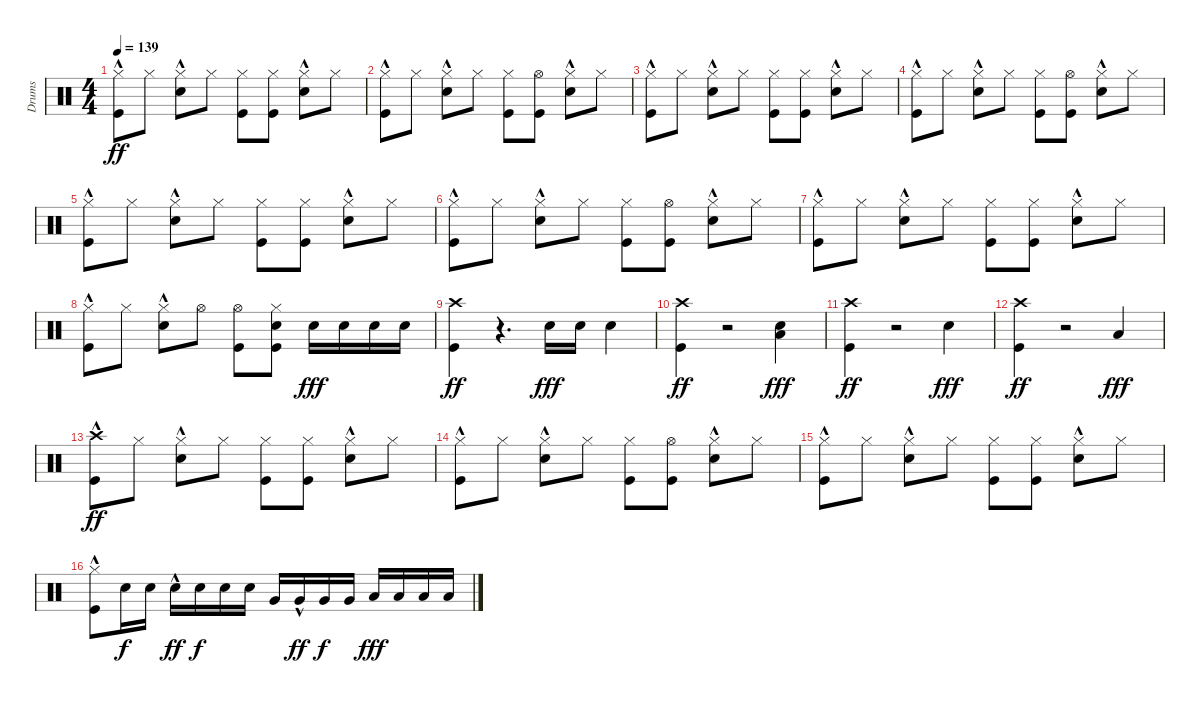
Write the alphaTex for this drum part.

\track ("Drums" "Drums") {instrument percussion}
\staff {score}
\articulation defaults
\ts (4 4)
\tempo 139
\clef neutral
\ks c
("Hi-Hat (closed)" "Kick (hit)"{hac}).8{dy ff} "Hi-Hat (closed)".8 ("Hi-Hat (closed)" "Snare (hit) 2"{hac}).8 "Hi-Hat (closed)".8 ("Hi-Hat (closed)" "Kick (hit)").8 ("Hi-Hat (closed)" "Kick (hit)").8 ("Hi-Hat (closed)" "Snare (hit) 2"{hac}).8 "Hi-Hat (closed)".8 |
("Hi-Hat (closed)" "Kick (hit)"{hac}).8 "Hi-Hat (closed)".8 ("Hi-Hat (closed)" "Snare (hit) 2"{hac}).8 "Hi-Hat (closed)".8 ("Hi-Hat (closed)" "Kick (hit)").8 ("Hi-Hat (open)" "Kick (hit)").8 ("Hi-Hat (closed)" "Snare (hit) 2"{hac}).8 "Hi-Hat (closed)".8 |
("Hi-Hat (closed)" "Kick (hit)"{hac}).8 "Hi-Hat (closed)".8 ("Hi-Hat (closed)" "Snare (hit) 2"{hac}).8 "Hi-Hat (closed)".8 ("Hi-Hat (closed)" "Kick (hit)").8 ("Hi-Hat (closed)" "Kick (hit)").8 ("Hi-Hat (closed)" "Snare (hit) 2"{hac}).8 "Hi-Hat (closed)".8 |
("Hi-Hat (closed)" "Kick (hit)"{hac}).8 "Hi-Hat (closed)".8 ("Hi-Hat (closed)" "Snare (hit) 2"{hac}).8 "Hi-Hat (closed)".8 ("Hi-Hat (closed)" "Kick (hit)").8 ("Hi-Hat (open)" "Kick (hit)").8 ("Hi-Hat (closed)" "Snare (hit) 2"{hac}).8 "Hi-Hat (closed)".8 |
("Hi-Hat (closed)" "Kick (hit)"{hac}).8 "Hi-Hat (closed)".8 ("Hi-Hat (closed)" "Snare (hit) 2"{hac}).8 "Hi-Hat (closed)".8 ("Hi-Hat (closed)" "Kick (hit)").8 ("Hi-Hat (closed)" "Kick (hit)").8 ("Hi-Hat (closed)" "Snare (hit) 2"{hac}).8 "Hi-Hat (closed)".8 |
("Hi-Hat (closed)" "Kick (hit)"{hac}).8 "Hi-Hat (closed)".8 ("Hi-Hat (closed)" "Snare (hit) 2"{hac}).8 "Hi-Hat (closed)".8 ("Hi-Hat (closed)" "Kick (hit)").8 ("Hi-Hat (open)" "Kick (hit)").8 ("Hi-Hat (closed)" "Snare (hit) 2"{hac}).8 "Hi-Hat (closed)".8 |
("Hi-Hat (closed)" "Kick (hit)"{hac}).8 "Hi-Hat (closed)".8 ("Hi-Hat (closed)" "Snare (hit) 2"{hac}).8 "Hi-Hat (closed)".8 ("Hi-Hat (closed)" "Kick (hit)").8 ("Hi-Hat (closed)" "Kick (hit)").8 ("Hi-Hat (closed)" "Snare (hit) 2"{hac}).8 "Hi-Hat (closed)".8 |
("Hi-Hat (closed)" "Kick (hit)"{hac}).8 "Hi-Hat (closed)".8 ("Hi-Hat (closed)" "Snare (hit) 2"{hac}).8 "Hi-Hat (open)".8 ("Hi-Hat (open)" "Kick (hit)").8 ("Hi-Hat (closed)" "Snare (hit) 2" "Kick (hit)").8 "Snare (hit) 2".16{dy fff} "Snare (hit) 2".16 "Snare (hit) 2".16 "Snare (hit) 2".16 |
("Crash high (hit)" "Kick (hit)").4{dy ff} r.4{d} "Snare (hit) 2".16{dy fff} "Snare (hit) 2".16 "Snare (hit) 2".4 |
("Crash high (hit)" "Kick (hit)").4{dy ff} r.2 ("Low Floor Tom (hit)" "Snare (hit) 2").4{dy fff} |
("Crash high (hit)" "Kick (hit)").4{dy ff} r.2 "Snare (hit) 2".4{dy fff} |
("Crash high (hit)" "Kick (hit)").4{dy ff} r.2 "Low Tom (hit)".4{dy fff} |
("Crash high (hit)" "Kick (hit)"{hac}).8{dy ff} "Hi-Hat (closed)".8 ("Hi-Hat (closed)" "Snare (hit) 2"{hac}).8 "Hi-Hat (closed)".8 ("Hi-Hat (closed)" "Kick (hit)").8 ("Hi-Hat (closed)" "Kick (hit)").8 ("Hi-Hat (closed)" "Snare (hit) 2"{hac}).8 "Hi-Hat (closed)".8 |
("Hi-Hat (closed)" "Kick (hit)"{hac}).8 "Hi-Hat (closed)".8 ("Hi-Hat (closed)" "Snare (hit) 2"{hac}).8 "Hi-Hat (closed)".8 ("Hi-Hat (closed)" "Kick (hit)").8 ("Hi-Hat (open)" "Kick (hit)").8 ("Hi-Hat (closed)" "Snare (hit) 2"{hac}).8 "Hi-Hat (closed)".8 |
("Hi-Hat (closed)" "Kick (hit)"{hac}).8 "Hi-Hat (closed)".8 ("Hi-Hat (closed)" "Snare (hit) 2"{hac}).8 "Hi-Hat (closed)".8 ("Hi-Hat (closed)" "Kick (hit)").8 ("Hi-Hat (closed)" "Kick (hit)").8 ("Hi-Hat (closed)" "Snare (hit) 2"{hac}).8 "Hi-Hat (closed)".8 |
("Hi-Hat (closed)" "Kick (hit)"{hac}).8 "Snare (hit) 2".16{dy f} "Snare (hit) 2".16 "Snare (hit) 2"{hac}.16{dy ff} "Snare (hit) 2".16{dy f} "Snare (hit) 2".16 "Snare (hit) 2".16 "Very Low Tom (hit)".16 "Very Low Tom (hit)"{hac}.16{dy ff} "Very Low Tom (hit)".16{dy f} "Very Low Tom (hit)".16 "Low Floor Tom (hit)".16{dy fff} "Low Floor Tom (hit)".16 "Low Floor Tom (hit)".16 "Low Floor Tom (hit)".16
